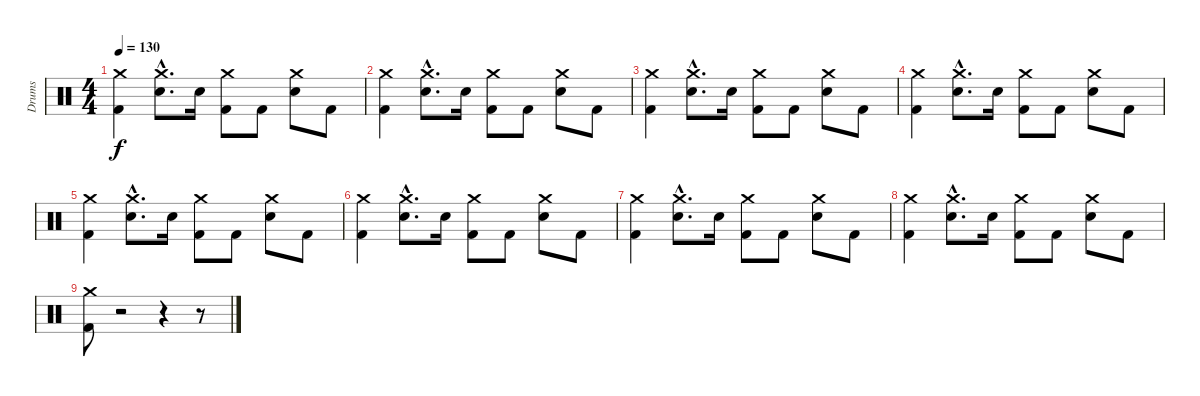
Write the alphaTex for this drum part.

\track ("Drums" "Drums") {instrument percussion}
\staff {score}
\articulation defaults
\ts (4 4)
\tempo 130
\clef neutral
\ks c
("Crash medium (hit)" "Kick (hit) 2").4{dy f} ("Crash medium (hit)"{hac} "Snare (hit) 2"{hac}).8{d} "Snare (hit) 2".16 ("Crash medium (hit)" "Kick (hit) 2").8 "Kick (hit) 2".8 ("Crash medium (hit)" "Snare (hit) 2").8 "Kick (hit) 2".8 |
("Crash medium (hit)" "Kick (hit) 2").4 ("Crash medium (hit)"{hac} "Snare (hit) 2"{hac}).8{d} "Snare (hit) 2".16 ("Crash medium (hit)" "Kick (hit) 2").8 "Kick (hit) 2".8 ("Crash medium (hit)" "Snare (hit) 2").8 "Kick (hit) 2".8 |
("Crash medium (hit)" "Kick (hit) 2").4 ("Crash medium (hit)"{hac} "Snare (hit) 2"{hac}).8{d} "Snare (hit) 2".16 ("Crash medium (hit)" "Kick (hit) 2").8 "Kick (hit) 2".8 ("Crash medium (hit)" "Snare (hit) 2").8 "Kick (hit) 2".8 |
("Crash medium (hit)" "Kick (hit) 2").4 ("Crash medium (hit)"{hac} "Snare (hit) 2"{hac}).8{d} "Snare (hit) 2".16 ("Crash medium (hit)" "Kick (hit) 2").8 "Kick (hit) 2".8 ("Crash medium (hit)" "Snare (hit) 2").8 "Kick (hit) 2".8 |
("Crash medium (hit)" "Kick (hit) 2").4 ("Crash medium (hit)"{hac} "Snare (hit) 2"{hac}).8{d} "Snare (hit) 2".16 ("Crash medium (hit)" "Kick (hit) 2").8 "Kick (hit) 2".8 ("Crash medium (hit)" "Snare (hit) 2").8 "Kick (hit) 2".8 |
("Crash medium (hit)" "Kick (hit) 2").4 ("Crash medium (hit)"{hac} "Snare (hit) 2"{hac}).8{d} "Snare (hit) 2".16 ("Crash medium (hit)" "Kick (hit) 2").8 "Kick (hit) 2".8 ("Crash medium (hit)" "Snare (hit) 2").8 "Kick (hit) 2".8 |
("Crash medium (hit)" "Kick (hit) 2").4 ("Crash medium (hit)"{hac} "Snare (hit) 2"{hac}).8{d} "Snare (hit) 2".16 ("Crash medium (hit)" "Kick (hit) 2").8 "Kick (hit) 2".8 ("Crash medium (hit)" "Snare (hit) 2").8 "Kick (hit) 2".8 |
("Crash medium (hit)" "Kick (hit) 2").4 ("Crash medium (hit)"{hac} "Snare (hit) 2"{hac}).8{d} "Snare (hit) 2".16 ("Crash medium (hit)" "Kick (hit) 2").8 "Kick (hit) 2".8 ("Crash medium (hit)" "Snare (hit) 2").8 "Kick (hit) 2".8 |
("Crash medium (hit)" "Kick (hit) 2").8 r.2 r.4 r.8
